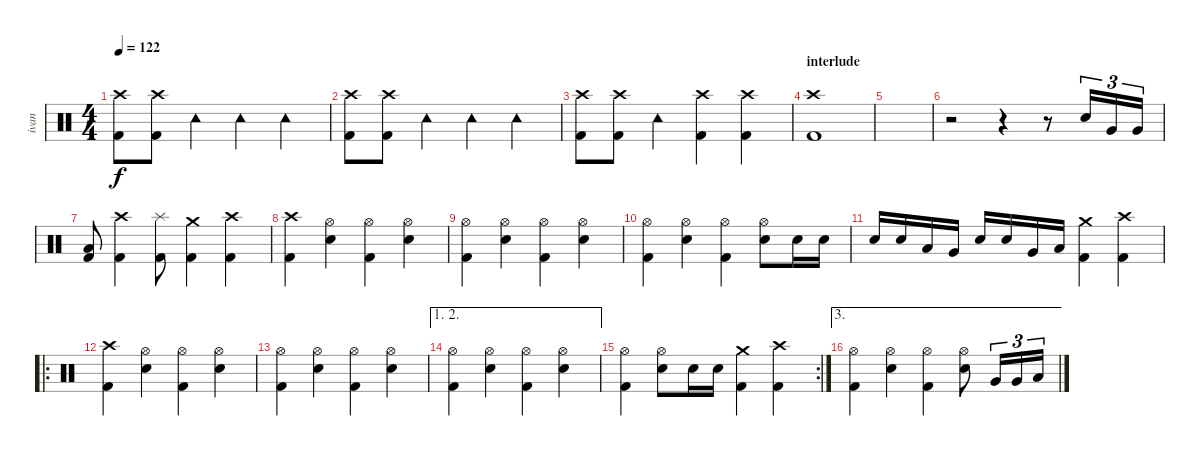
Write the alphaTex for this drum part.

\track ("ivan" "ivan") {instrument percussion}
\staff {score}
\articulation defaults
\ts (4 4)
\tempo 122
\clef neutral
\ks c
("Crash high (hit)" "Kick (hit) 2").8{dy f} ("Crash high (hit)" "Kick (hit) 2").8 "Tambourine (hit)".4 "Tambourine (hit)".4 "Tambourine (hit)".4 |
("Crash high (hit)" "Kick (hit) 2").8 ("Crash high (hit)" "Kick (hit) 2").8 "Tambourine (hit)".4 "Tambourine (hit)".4 "Tambourine (hit)".4 |
("Crash high (hit)" "Kick (hit) 2").8 ("Crash high (hit)" "Kick (hit) 2").8 "Tambourine (hit)".4 ("Crash high (hit)" "Kick (hit) 2").4 ("Crash high (hit)" "Kick (hit) 2").4 |
\section ("" "interlude")
("Crash high (hit)" "Kick (hit) 2").1 |
|
r.2 r.4 r.8 "Electric Snare (hit)".16{tu (3 2)} "Very Low Tom (hit)".16{tu (3 2)} "Very Low Tom (hit)".16{tu (3 2)} |
("Low Floor Tom (hit)" "Kick (hit) 2").8 ("Crash high (hit)" "Kick (hit) 2").4 ("Splash (hit)" "Kick (hit) 2").8 ("Crash medium (hit)" "Kick (hit) 2").4 ("Crash high (hit)" "Kick (hit) 2").4 |
("Crash high (hit)" "Kick (hit) 2").4 ("Hi-Hat (open)" "Electric Snare (hit)").4 ("Hi-Hat (open)" "Kick (hit) 2").4 ("Hi-Hat (open)" "Electric Snare (hit)").4 |
("Hi-Hat (open)" "Kick (hit) 2").4 ("Hi-Hat (open)" "Electric Snare (hit)").4 ("Hi-Hat (open)" "Kick (hit) 2").4 ("Hi-Hat (open)" "Electric Snare (hit)").4 |
("Hi-Hat (open)" "Kick (hit) 2").4 ("Hi-Hat (open)" "Electric Snare (hit)").4 ("Hi-Hat (open)" "Kick (hit) 2").4 ("Hi-Hat (open)" "Electric Snare (hit)").8 "Electric Snare (hit)".16 "Electric Snare (hit)".16 |
"Electric Snare (hit)".16 "Electric Snare (hit)".16 "Low Tom (hit)".16 "Very Low Tom (hit)".16 "Electric Snare (hit)".16 "Electric Snare (hit)".16 "Very Low Tom (hit)".16 "Low Floor Tom (hit)".16 ("Crash medium (hit)" "Kick (hit) 2").4 ("Crash high (hit)" "Kick (hit) 2").4 |
\ro
("Crash high (hit)" "Kick (hit) 2").4 ("Hi-Hat (open)" "Electric Snare (hit)").4 ("Hi-Hat (open)" "Kick (hit) 2").4 ("Hi-Hat (open)" "Electric Snare (hit)").4 |
("Hi-Hat (open)" "Kick (hit) 2").4 ("Hi-Hat (open)" "Electric Snare (hit)").4 ("Hi-Hat (open)" "Kick (hit) 2").4 ("Hi-Hat (open)" "Electric Snare (hit)").4 |
\ae (1 2)
("Hi-Hat (open)" "Kick (hit) 2").4 ("Hi-Hat (open)" "Electric Snare (hit)").4 ("Hi-Hat (open)" "Kick (hit) 2").4 ("Hi-Hat (open)" "Electric Snare (hit)").4 |
\rc 2
("Hi-Hat (open)" "Kick (hit) 2").4 ("Hi-Hat (open)" "Electric Snare (hit)").8 "Electric Snare (hit)".16 "Electric Snare (hit)".16 ("Crash medium (hit)" "Kick (hit) 2").4 ("Crash high (hit)" "Kick (hit) 2").4 |
\ae 3
("Hi-Hat (open)" "Kick (hit) 2").4 ("Hi-Hat (open)" "Electric Snare (hit)").4 ("Hi-Hat (open)" "Kick (hit) 2").4 ("Hi-Hat (open)" "Electric Snare (hit)").8 "Very Low Tom (hit)".16{tu (3 2)} "Very Low Tom (hit)".16{tu (3 2)} "Low Floor Tom (hit)".16{tu (3 2)}
